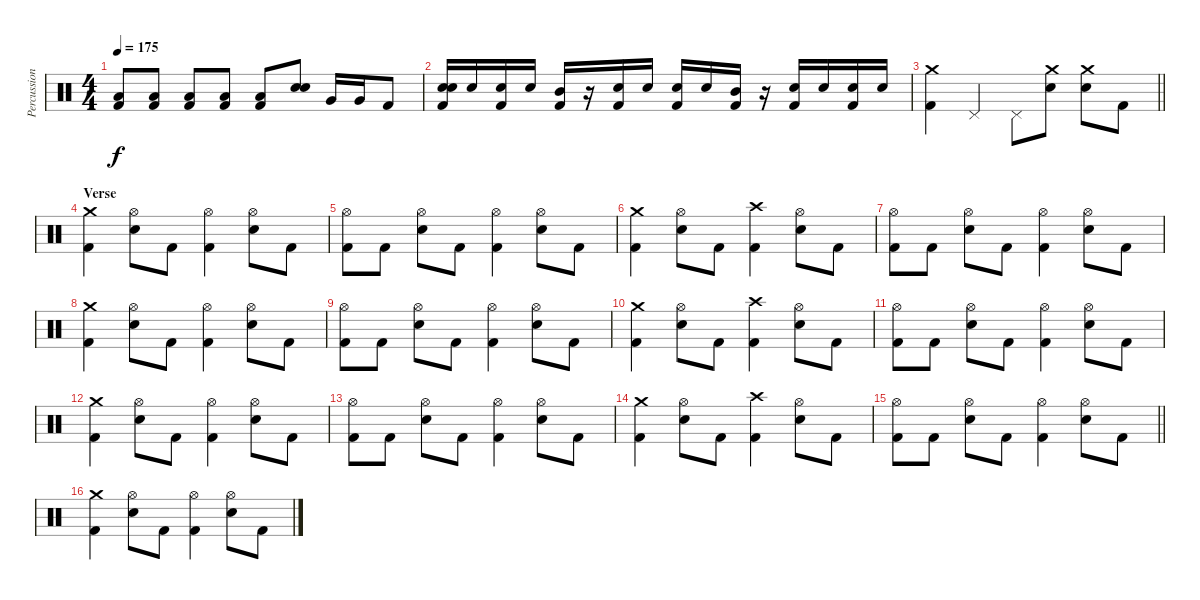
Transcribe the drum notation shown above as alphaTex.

\track ("Percussion" "Percussion") {instrument percussion}
\staff {score}
\articulation defaults
\ts (4 4)
\tempo 175
\clef neutral
\ks c
("Low Floor Tom (hit)" "Kick (hit) 2").8{dy f} ("Low Floor Tom (hit)" "Kick (hit) 2").8 ("Low Floor Tom (hit)" "Kick (hit) 2").8 ("Low Floor Tom (hit)" "Kick (hit) 2").8 ("Low Floor Tom (hit)" "Kick (hit) 2").8 ("Electric Snare (hit)" "Electric Snare (hit)").8 "Very Low Tom (hit)".16 "Very Low Tom (hit)".16 "Kick (hit) 2".8 |
("Electric Snare (hit)" "Electric Snare (hit)" "Kick (hit) 2").16 "Electric Snare (hit)".16 ("Electric Snare (hit)" "Kick (hit) 2").16 "Electric Snare (hit)".16 ("Mid Tom (hit)" "Kick (hit) 2").16 r.16 ("Electric Snare (hit)" "Kick (hit) 2").16 "Electric Snare (hit)".16 ("Electric Snare (hit)" "Kick (hit) 2").16 "Electric Snare (hit)".16 ("Mid Tom (hit)" "Kick (hit) 2").16 r.16 ("Electric Snare (hit)" "Kick (hit) 2").16 "Electric Snare (hit)".16 ("Electric Snare (hit)" "Kick (hit) 2").16 "Electric Snare (hit)".16 |
\barLineRight lightlight
("Crash medium (hit)" "Kick (hit) 2").4 "Pedal Hi-Hat (hit)".4 "Pedal Hi-Hat (hit)".8 ("Crash medium (hit)" "Electric Snare (hit)").8 ("Crash medium (hit)" "Electric Snare (hit)").8 "Kick (hit) 2".8 |
\section ("" "Verse")
("Crash medium (hit)" "Kick (hit) 2").4 ("Hi-Hat (open)" "Electric Snare (hit)").8 "Kick (hit) 2".8 ("Hi-Hat (open)" "Kick (hit) 2").4 ("Hi-Hat (open)" "Electric Snare (hit)").8 "Kick (hit) 2".8 |
("Hi-Hat (open)" "Kick (hit) 2").8 "Kick (hit) 2".8 ("Hi-Hat (open)" "Electric Snare (hit)").8 "Kick (hit) 2".8 ("Hi-Hat (open)" "Kick (hit) 2").4 ("Hi-Hat (open)" "Electric Snare (hit)").8 "Kick (hit) 2".8 |
("Crash medium (hit)" "Kick (hit) 2").4 ("Hi-Hat (open)" "Electric Snare (hit)").8 "Kick (hit) 2".8 ("Crash high (hit)" "Kick (hit) 2").4 ("Hi-Hat (open)" "Electric Snare (hit)").8 "Kick (hit) 2".8 |
("Hi-Hat (open)" "Kick (hit) 2").8 "Kick (hit) 2".8 ("Hi-Hat (open)" "Electric Snare (hit)").8 "Kick (hit) 2".8 ("Hi-Hat (open)" "Kick (hit) 2").4 ("Hi-Hat (open)" "Electric Snare (hit)").8 "Kick (hit) 2".8 |
("Crash medium (hit)" "Kick (hit) 2").4 ("Hi-Hat (open)" "Electric Snare (hit)").8 "Kick (hit) 2".8 ("Hi-Hat (open)" "Kick (hit) 2").4 ("Hi-Hat (open)" "Electric Snare (hit)").8 "Kick (hit) 2".8 |
("Hi-Hat (open)" "Kick (hit) 2").8 "Kick (hit) 2".8 ("Hi-Hat (open)" "Electric Snare (hit)").8 "Kick (hit) 2".8 ("Hi-Hat (open)" "Kick (hit) 2").4 ("Hi-Hat (open)" "Electric Snare (hit)").8 "Kick (hit) 2".8 |
("Crash medium (hit)" "Kick (hit) 2").4 ("Hi-Hat (open)" "Electric Snare (hit)").8 "Kick (hit) 2".8 ("Crash high (hit)" "Kick (hit) 2").4 ("Hi-Hat (open)" "Electric Snare (hit)").8 "Kick (hit) 2".8 |
("Hi-Hat (open)" "Kick (hit) 2").8 "Kick (hit) 2".8 ("Hi-Hat (open)" "Electric Snare (hit)").8 "Kick (hit) 2".8 ("Hi-Hat (open)" "Kick (hit) 2").4 ("Hi-Hat (open)" "Electric Snare (hit)").8 "Kick (hit) 2".8 |
("Crash medium (hit)" "Kick (hit) 2").4 ("Hi-Hat (open)" "Electric Snare (hit)").8 "Kick (hit) 2".8 ("Hi-Hat (open)" "Kick (hit) 2").4 ("Hi-Hat (open)" "Electric Snare (hit)").8 "Kick (hit) 2".8 |
("Hi-Hat (open)" "Kick (hit) 2").8 "Kick (hit) 2".8 ("Hi-Hat (open)" "Electric Snare (hit)").8 "Kick (hit) 2".8 ("Hi-Hat (open)" "Kick (hit) 2").4 ("Hi-Hat (open)" "Electric Snare (hit)").8 "Kick (hit) 2".8 |
("Crash medium (hit)" "Kick (hit) 2").4 ("Hi-Hat (open)" "Electric Snare (hit)").8 "Kick (hit) 2".8 ("Crash high (hit)" "Kick (hit) 2").4 ("Hi-Hat (open)" "Electric Snare (hit)").8 "Kick (hit) 2".8 |
\barLineRight lightlight
("Hi-Hat (open)" "Kick (hit) 2").8 "Kick (hit) 2".8 ("Hi-Hat (open)" "Electric Snare (hit)").8 "Kick (hit) 2".8 ("Hi-Hat (open)" "Kick (hit) 2").4 ("Hi-Hat (open)" "Electric Snare (hit)").8 "Kick (hit) 2".8 |
("Crash medium (hit)" "Kick (hit) 2").4 ("Hi-Hat (open)" "Electric Snare (hit)").8 "Kick (hit) 2".8 ("Hi-Hat (open)" "Kick (hit) 2").4 ("Hi-Hat (open)" "Electric Snare (hit)").8 "Kick (hit) 2".8
